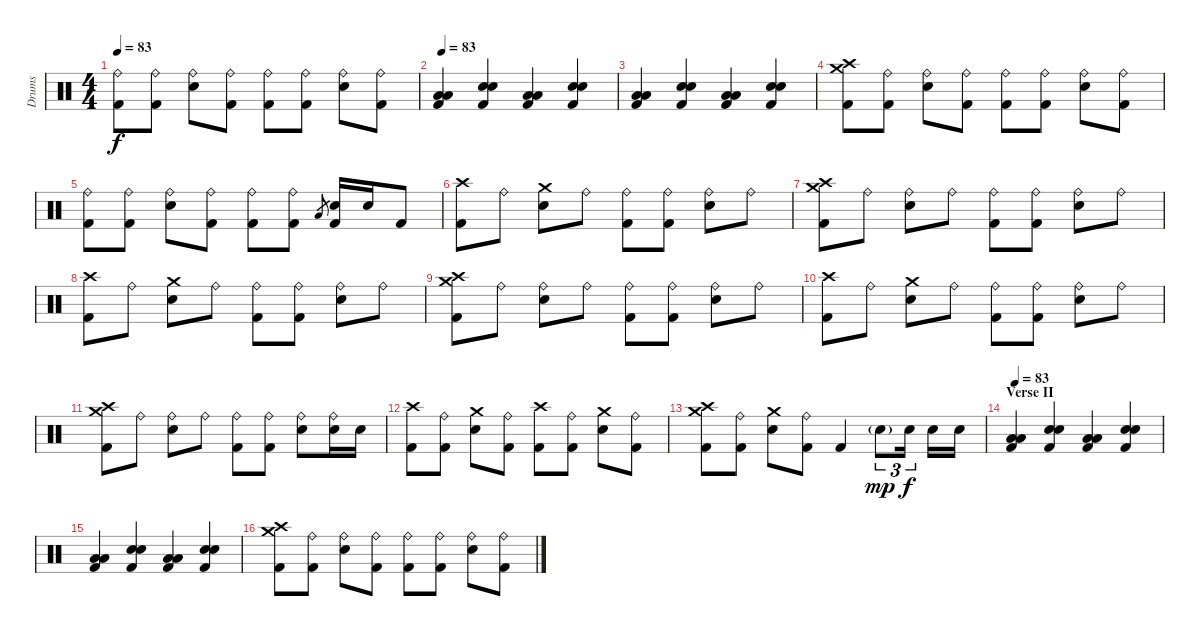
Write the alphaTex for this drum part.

\track ("Drums" "Drums") {instrument percussion}
\staff {score}
\articulation defaults
\ts (4 4)
\tempo 83
\clef neutral
\ks c
("Ride (bell)" "Kick (hit) 2").8{dy f} ("Ride (bell)" "Kick (hit) 2").8 ("Ride (bell)" "Electric Snare (hit)").8 ("Ride (bell)" "Kick (hit) 2").8 ("Ride (bell)" "Kick (hit) 2").8 ("Ride (bell)" "Kick (hit) 2").8 ("Ride (bell)" "Electric Snare (hit)").8 ("Ride (bell)" "Kick (hit) 2").8 |
\tempo 83
("Low Floor Tom (hit)" "Low Floor Tom (hit)" "Kick (hit) 2").4 ("Electric Snare (hit)" "Electric Snare (hit)" "Kick (hit) 2").4 ("Low Floor Tom (hit)" "Low Floor Tom (hit)" "Kick (hit) 2").4 ("Electric Snare (hit)" "Electric Snare (hit)" "Kick (hit) 2").4 |
("Low Floor Tom (hit)" "Low Floor Tom (hit)" "Kick (hit) 2").4 ("Electric Snare (hit)" "Electric Snare (hit)" "Kick (hit) 2").4 ("Low Floor Tom (hit)" "Low Floor Tom (hit)" "Kick (hit) 2").4 ("Electric Snare (hit)" "Electric Snare (hit)" "Kick (hit) 2").4 |
("Crash high (hit)" "Crash medium (hit)" "Kick (hit) 2").8 ("Ride (bell)" "Kick (hit) 2").8 ("Ride (bell)" "Electric Snare (hit)").8 ("Ride (bell)" "Kick (hit) 2").8 ("Ride (bell)" "Kick (hit) 2").8 ("Ride (bell)" "Kick (hit) 2").8 ("Ride (bell)" "Electric Snare (hit)").8 ("Ride (bell)" "Kick (hit) 2").8 |
("Ride (bell)" "Kick (hit) 2").8 ("Ride (bell)" "Kick (hit) 2").8 ("Ride (bell)" "Electric Snare (hit)").8 ("Ride (bell)" "Kick (hit) 2").8 ("Ride (bell)" "Kick (hit) 2").8 ("Ride (bell)" "Kick (hit) 2").8 "Low Floor Tom (hit)".8{gr} ("Electric Snare (hit)" "Kick (hit) 2").16 "Electric Snare (hit)".16 "Kick (hit) 2".8 |
("Crash high (hit)" "Kick (hit) 2").8 "Ride (bell)".8 ("Crash medium (hit)" "Electric Snare (hit)").8 "Ride (bell)".8 ("Ride (bell)" "Kick (hit) 2").8 ("Ride (bell)" "Kick (hit) 2").8 ("Ride (bell)" "Electric Snare (hit)").8 "Ride (bell)".8 |
("Crash high (hit)" "Crash medium (hit)" "Kick (hit) 2").8 "Ride (bell)".8 ("Ride (bell)" "Electric Snare (hit)").8 "Ride (bell)".8 ("Ride (bell)" "Kick (hit) 2").8 ("Ride (bell)" "Kick (hit) 2").8 ("Ride (bell)" "Electric Snare (hit)").8 "Ride (bell)".8 |
("Crash high (hit)" "Kick (hit) 2").8 "Ride (bell)".8 ("Crash medium (hit)" "Electric Snare (hit)").8 "Ride (bell)".8 ("Ride (bell)" "Kick (hit) 2").8 ("Ride (bell)" "Kick (hit) 2").8 ("Ride (bell)" "Electric Snare (hit)").8 "Ride (bell)".8 |
("Crash high (hit)" "Crash medium (hit)" "Kick (hit) 2").8 "Ride (bell)".8 ("Ride (bell)" "Electric Snare (hit)").8 "Ride (bell)".8 ("Ride (bell)" "Kick (hit) 2").8 ("Ride (bell)" "Kick (hit) 2").8 ("Ride (bell)" "Electric Snare (hit)").8 "Ride (bell)".8 |
("Crash high (hit)" "Kick (hit) 2").8 "Ride (bell)".8 ("Crash medium (hit)" "Electric Snare (hit)").8 "Ride (bell)".8 ("Ride (bell)" "Kick (hit) 2").8 ("Ride (bell)" "Kick (hit) 2").8 ("Ride (bell)" "Electric Snare (hit)").8 "Ride (bell)".8 |
("Crash high (hit)" "Crash medium (hit)" "Kick (hit) 2").8 "Ride (bell)".8 ("Ride (bell)" "Electric Snare (hit)").8 "Ride (bell)".8 ("Ride (bell)" "Kick (hit) 2").8 ("Ride (bell)" "Kick (hit) 2").8 ("Ride (bell)" "Electric Snare (hit)").8 ("Ride (bell)" "Electric Snare (hit)").16 "Electric Snare (hit)".16 |
("Crash high (hit)" "Kick (hit) 2").8 ("Ride (bell)" "Kick (hit) 2").8 ("Crash medium (hit)" "Electric Snare (hit)").8 ("Ride (bell)" "Kick (hit) 2").8 ("Crash high (hit)" "Kick (hit) 2").8 ("Ride (bell)" "Kick (hit) 2").8 ("Crash medium (hit)" "Electric Snare (hit)").8 ("Ride (bell)" "Kick (hit) 2").8 |
("Crash high (hit)" "Crash medium (hit)" "Kick (hit) 2").8 ("Ride (bell)" "Kick (hit) 2").8 ("Crash medium (hit)" "Electric Snare (hit)").8 ("Ride (bell)" "Kick (hit) 2").8 "Kick (hit) 2".4 "Electric Snare (hit)"{g}.8{tu (3 2) dy mp} "Electric Snare (hit)".16{tu (3 2) dy f} "Electric Snare (hit)".16 "Electric Snare (hit)".16 |
\section ("" "Verse II")
\tempo 83
("Low Floor Tom (hit)" "Low Floor Tom (hit)" "Kick (hit) 2").4 ("Electric Snare (hit)" "Electric Snare (hit)" "Kick (hit) 2").4 ("Low Floor Tom (hit)" "Low Floor Tom (hit)" "Kick (hit) 2").4 ("Electric Snare (hit)" "Electric Snare (hit)" "Kick (hit) 2").4 |
("Low Floor Tom (hit)" "Low Floor Tom (hit)" "Kick (hit) 2").4 ("Electric Snare (hit)" "Electric Snare (hit)" "Kick (hit) 2").4 ("Low Floor Tom (hit)" "Low Floor Tom (hit)" "Kick (hit) 2").4 ("Electric Snare (hit)" "Electric Snare (hit)" "Kick (hit) 2").4 |
("Crash high (hit)" "Crash medium (hit)" "Kick (hit) 2").8 ("Ride (bell)" "Kick (hit) 2").8 ("Ride (bell)" "Electric Snare (hit)").8 ("Ride (bell)" "Kick (hit) 2").8 ("Ride (bell)" "Kick (hit) 2").8 ("Ride (bell)" "Kick (hit) 2").8 ("Ride (bell)" "Electric Snare (hit)").8 ("Ride (bell)" "Kick (hit) 2").8
